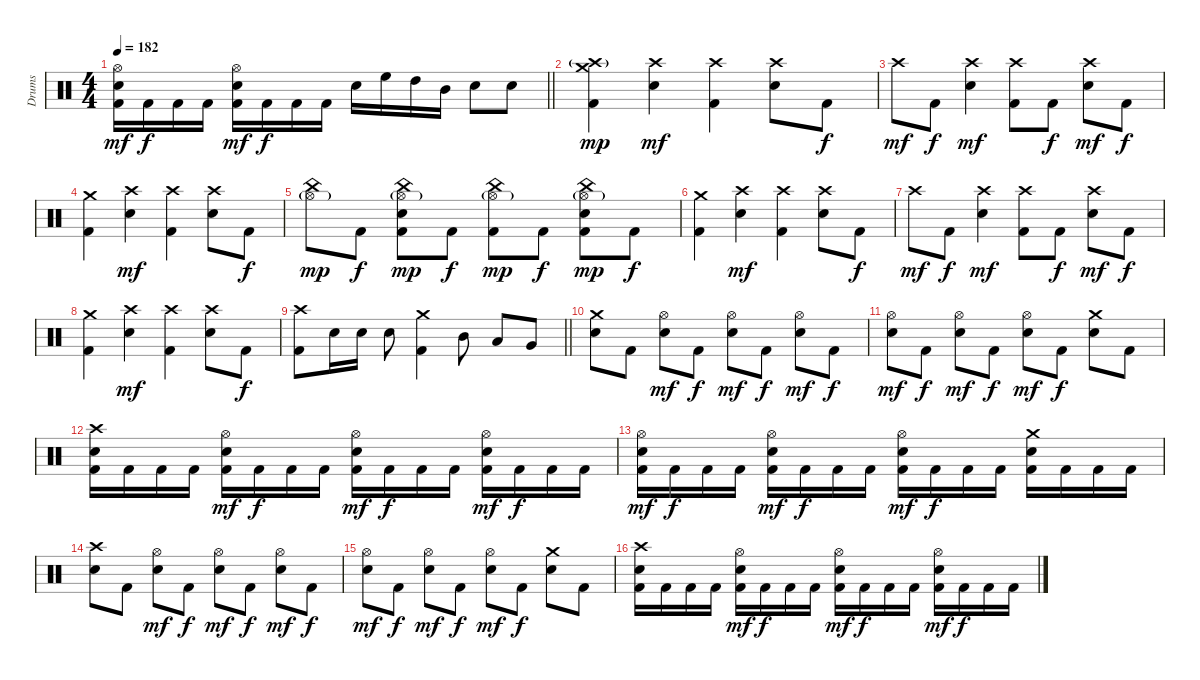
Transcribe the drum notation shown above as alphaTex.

\track ("Drums" "Drums") {instrument percussion}
\staff {score}
\articulation defaults
\ts (4 4)
\tempo 182
\clef neutral
\barLineRight lightlight
\ks c
("Hi-Hat (open)" "Electric Snare (hit)" "Kick (hit) 2").16{dy mf} "Kick (hit) 2".16{dy f} "Kick (hit) 2".16 "Kick (hit) 2".16 ("Hi-Hat (open)" "Electric Snare (hit)" "Kick (hit) 2").16{dy mf} "Kick (hit) 2".16{dy f} "Kick (hit) 2".16 "Kick (hit) 2".16 "Electric Snare (hit)".16 "High Floor Tom (hit)".16 "High Tom (hit)".16 "Mid Tom (hit)".16 "Electric Snare (hit)".8 "Electric Snare (hit)".8 |
("Crash medium (hit)" "Crash high (hit)"{g} "Kick (hit) 2").4{dy mp} ("Crash high (hit)" "Electric Snare (hit)").4{dy mf} ("Crash high (hit)" "Kick (hit) 2").4 ("Crash high (hit)" "Electric Snare (hit)").8 "Kick (hit) 2".8{dy f} |
"Crash high (hit)".8{dy mf} "Kick (hit) 2".8{dy f} ("Crash high (hit)" "Electric Snare (hit)").4{dy mf} ("Crash high (hit)" "Kick (hit) 2").8 "Kick (hit) 2".8{dy f} ("Crash high (hit)" "Electric Snare (hit)").8{dy mf} "Kick (hit) 2".8{dy f} |
("Crash medium (hit)" "Kick (hit) 2").4 ("Crash high (hit)" "Electric Snare (hit)").4{dy mf} ("Crash high (hit)" "Kick (hit) 2").4 ("Crash high (hit)" "Electric Snare (hit)").8 "Kick (hit) 2".8{dy f} |
("China (hit)" "Hi-Hat (open)"{g}).8{dy mp} "Kick (hit) 2".8{dy f} ("China (hit)" "Hi-Hat (open)"{g} "Electric Snare (hit)" "Kick (hit) 2").8{dy mp} "Kick (hit) 2".8{dy f} ("China (hit)" "Hi-Hat (open)"{g} "Kick (hit) 2").8{dy mp} "Kick (hit) 2".8{dy f} ("China (hit)" "Hi-Hat (open)"{g} "Electric Snare (hit)" "Kick (hit) 2").8{dy mp} "Kick (hit) 2".8{dy f} |
("Crash medium (hit)" "Kick (hit) 2").4 ("Crash high (hit)" "Electric Snare (hit)").4{dy mf} ("Crash high (hit)" "Kick (hit) 2").4 ("Crash high (hit)" "Electric Snare (hit)").8 "Kick (hit) 2".8{dy f} |
"Crash high (hit)".8{dy mf} "Kick (hit) 2".8{dy f} ("Crash high (hit)" "Electric Snare (hit)").4{dy mf} ("Crash high (hit)" "Kick (hit) 2").8 "Kick (hit) 2".8{dy f} ("Crash high (hit)" "Electric Snare (hit)").8{dy mf} "Kick (hit) 2".8{dy f} |
("Crash medium (hit)" "Kick (hit) 2").4 ("Crash high (hit)" "Electric Snare (hit)").4{dy mf} ("Crash high (hit)" "Kick (hit) 2").4 ("Crash high (hit)" "Electric Snare (hit)").8 "Kick (hit) 2".8{dy f} |
\barLineRight lightlight
("Crash high (hit)" "Kick (hit) 2").8 "Electric Snare (hit)".16 "Electric Snare (hit)".16 "Electric Snare (hit)".8 ("Crash medium (hit)" "Kick (hit) 2").4 "Mid Tom (hit)".8 "Low Tom (hit)".8 "Very Low Tom (hit)".8 |
("Crash medium (hit)" "Electric Snare (hit)").8 "Kick (hit) 2".8 ("Hi-Hat (open)" "Electric Snare (hit)").8{dy mf} "Kick (hit) 2".8{dy f} ("Hi-Hat (open)" "Electric Snare (hit)").8{dy mf} "Kick (hit) 2".8{dy f} ("Hi-Hat (open)" "Electric Snare (hit)").8{dy mf} "Kick (hit) 2".8{dy f} |
("Hi-Hat (open)" "Electric Snare (hit)").8{dy mf} "Kick (hit) 2".8{dy f} ("Hi-Hat (open)" "Electric Snare (hit)").8{dy mf} "Kick (hit) 2".8{dy f} ("Hi-Hat (open)" "Electric Snare (hit)").8{dy mf} "Kick (hit) 2".8{dy f} ("Crash medium (hit)" "Electric Snare (hit)").8 "Kick (hit) 2".8 |
("Crash high (hit)" "Electric Snare (hit)" "Kick (hit) 2").16 "Kick (hit) 2".16 "Kick (hit) 2".16 "Kick (hit) 2".16 ("Hi-Hat (open)" "Electric Snare (hit)" "Kick (hit) 2").16{dy mf} "Kick (hit) 2".16{dy f} "Kick (hit) 2".16 "Kick (hit) 2".16 ("Hi-Hat (open)" "Electric Snare (hit)" "Kick (hit) 2").16{dy mf} "Kick (hit) 2".16{dy f} "Kick (hit) 2".16 "Kick (hit) 2".16 ("Hi-Hat (open)" "Electric Snare (hit)" "Kick (hit) 2").16{dy mf} "Kick (hit) 2".16{dy f} "Kick (hit) 2".16 "Kick (hit) 2".16 |
("Hi-Hat (open)" "Electric Snare (hit)" "Kick (hit) 2").16{dy mf} "Kick (hit) 2".16{dy f} "Kick (hit) 2".16 "Kick (hit) 2".16 ("Hi-Hat (open)" "Electric Snare (hit)" "Kick (hit) 2").16{dy mf} "Kick (hit) 2".16{dy f} "Kick (hit) 2".16 "Kick (hit) 2".16 ("Hi-Hat (open)" "Electric Snare (hit)" "Kick (hit) 2").16{dy mf} "Kick (hit) 2".16{dy f} "Kick (hit) 2".16 "Kick (hit) 2".16 ("Crash medium (hit)" "Electric Snare (hit)" "Kick (hit) 2").16 "Kick (hit) 2".16 "Kick (hit) 2".16 "Kick (hit) 2".16 |
("Crash high (hit)" "Electric Snare (hit)").8 "Kick (hit) 2".8 ("Hi-Hat (open)" "Electric Snare (hit)").8{dy mf} "Kick (hit) 2".8{dy f} ("Hi-Hat (open)" "Electric Snare (hit)").8{dy mf} "Kick (hit) 2".8{dy f} ("Hi-Hat (open)" "Electric Snare (hit)").8{dy mf} "Kick (hit) 2".8{dy f} |
("Hi-Hat (open)" "Electric Snare (hit)").8{dy mf} "Kick (hit) 2".8{dy f} ("Hi-Hat (open)" "Electric Snare (hit)").8{dy mf} "Kick (hit) 2".8{dy f} ("Hi-Hat (open)" "Electric Snare (hit)").8{dy mf} "Kick (hit) 2".8{dy f} ("Crash medium (hit)" "Electric Snare (hit)").8 "Kick (hit) 2".8 |
("Crash high (hit)" "Electric Snare (hit)" "Kick (hit) 2").16 "Kick (hit) 2".16 "Kick (hit) 2".16 "Kick (hit) 2".16 ("Hi-Hat (open)" "Electric Snare (hit)" "Kick (hit) 2").16{dy mf} "Kick (hit) 2".16{dy f} "Kick (hit) 2".16 "Kick (hit) 2".16 ("Hi-Hat (open)" "Electric Snare (hit)" "Kick (hit) 2").16{dy mf} "Kick (hit) 2".16{dy f} "Kick (hit) 2".16 "Kick (hit) 2".16 ("Hi-Hat (open)" "Electric Snare (hit)" "Kick (hit) 2").16{dy mf} "Kick (hit) 2".16{dy f} "Kick (hit) 2".16 "Kick (hit) 2".16
